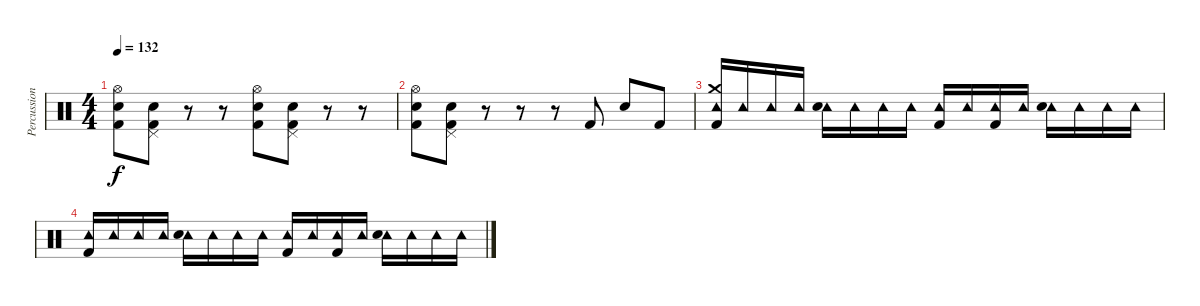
\track ("Percussion" "Percussion") {instrument percussion}
\staff {score}
\articulation defaults
\ts (4 4)
\tempo 132
\clef neutral
\ks c
("Hi-Hat (open)" "Snare (hit) 2" "Kick (hit) 2").8{dy f} ("Pedal Hi-Hat (hit)" "Snare (hit) 2" "Kick (hit) 2").8 r.8 r.8 ("Hi-Hat (open)" "Snare (hit) 2" "Kick (hit) 2").8 ("Pedal Hi-Hat (hit)" "Snare (hit) 2" "Kick (hit) 2").8 r.8 r.8 |
("Hi-Hat (open)" "Snare (hit) 2" "Kick (hit) 2").8 ("Pedal Hi-Hat (hit)" "Snare (hit) 2" "Kick (hit) 2").8 r.8 r.8 r.8 "Kick (hit) 2".8 "Snare (hit) 2".8 "Kick (hit) 2".8 |
("Crash medium (hit)" "Tambourine (hit)" "Kick (hit) 2").16 "Tambourine (hit)".16 "Tambourine (hit)".16 "Tambourine (hit)".16 ("Tambourine (hit)" "Snare (hit) 2").16 "Tambourine (hit)".16 "Tambourine (hit)".16 "Tambourine (hit)".16 ("Tambourine (hit)" "Kick (hit) 2").16 "Tambourine (hit)".16 ("Tambourine (hit)" "Kick (hit) 2").16 "Tambourine (hit)".16 ("Tambourine (hit)" "Snare (hit) 2").16 "Tambourine (hit)".16 "Tambourine (hit)".16 "Tambourine (hit)".16 |
("Tambourine (hit)" "Kick (hit) 2").16 "Tambourine (hit)".16 "Tambourine (hit)".16 "Tambourine (hit)".16 ("Tambourine (hit)" "Snare (hit) 2").16 "Tambourine (hit)".16 "Tambourine (hit)".16 "Tambourine (hit)".16 ("Tambourine (hit)" "Kick (hit) 2").16 "Tambourine (hit)".16 ("Tambourine (hit)" "Kick (hit) 2").16 "Tambourine (hit)".16 ("Tambourine (hit)" "Snare (hit) 2").16 "Tambourine (hit)".16 "Tambourine (hit)".16 "Tambourine (hit)".16
